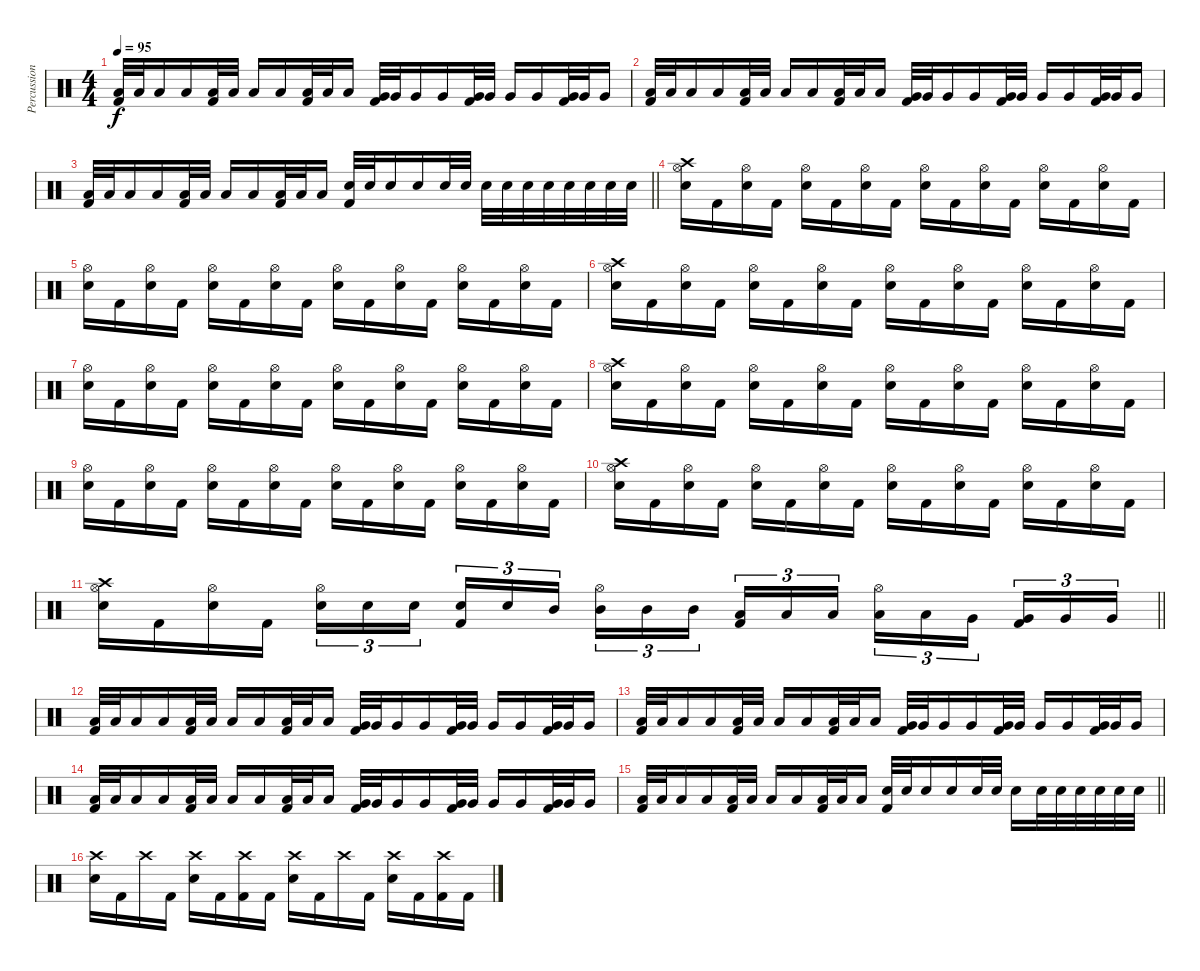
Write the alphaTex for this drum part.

\track ("Percussion" "Percussion") {instrument percussion}
\staff {score}
\articulation defaults
\ts (4 4)
\tempo 95
\clef neutral
\ks c
("Low Tom (hit)" "Kick (hit) 2").32{dy f} "Low Tom (hit)".32 "Low Tom (hit)".16 "Low Tom (hit)".16 ("Low Tom (hit)" "Kick (hit) 2").32 "Low Tom (hit)".32 "Low Tom (hit)".16 "Low Tom (hit)".16 ("Low Tom (hit)" "Kick (hit) 2").32 "Low Tom (hit)".32 "Low Tom (hit)".16 ("Very Low Tom (hit)" "Kick (hit) 2").32 "Very Low Tom (hit)".32 "Very Low Tom (hit)".16 "Very Low Tom (hit)".16 ("Very Low Tom (hit)" "Kick (hit) 2").32 "Very Low Tom (hit)".32 "Very Low Tom (hit)".16 "Very Low Tom (hit)".16 ("Very Low Tom (hit)" "Kick (hit) 2").32 "Very Low Tom (hit)".32 "Very Low Tom (hit)".16 |
("Low Tom (hit)" "Kick (hit) 2").32 "Low Tom (hit)".32 "Low Tom (hit)".16 "Low Tom (hit)".16 ("Low Tom (hit)" "Kick (hit) 2").32 "Low Tom (hit)".32 "Low Tom (hit)".16 "Low Tom (hit)".16 ("Low Tom (hit)" "Kick (hit) 2").32 "Low Tom (hit)".32 "Low Tom (hit)".16 ("Very Low Tom (hit)" "Kick (hit) 2").32 "Very Low Tom (hit)".32 "Very Low Tom (hit)".16 "Very Low Tom (hit)".16 ("Very Low Tom (hit)" "Kick (hit) 2").32 "Very Low Tom (hit)".32 "Very Low Tom (hit)".16 "Very Low Tom (hit)".16 ("Very Low Tom (hit)" "Kick (hit) 2").32 "Very Low Tom (hit)".32 "Very Low Tom (hit)".16 |
\barLineRight lightlight
("Low Tom (hit)" "Kick (hit) 2").32 "Low Tom (hit)".32 "Low Tom (hit)".16 "Low Tom (hit)".16 ("Low Tom (hit)" "Kick (hit) 2").32 "Low Tom (hit)".32 "Low Tom (hit)".16 "Low Tom (hit)".16 ("Low Tom (hit)" "Kick (hit) 2").32 "Low Tom (hit)".32 "Low Tom (hit)".16 ("Snare (hit) 2" "Kick (hit) 2").32 "Snare (hit) 2".32 "Snare (hit) 2".16 "Snare (hit) 2".16 "Snare (hit) 2".32 "Snare (hit) 2".32 "Snare (hit) 2".32 "Snare (hit) 2".32 "Snare (hit) 2".32 "Snare (hit) 2".32 "Snare (hit) 2".32 "Snare (hit) 2".32 "Snare (hit) 2".32 "Snare (hit) 2".32 |
("Crash high (hit)" "Hi-Hat (open)" "Snare (hit) 2").16 "Kick (hit) 2".16 ("Hi-Hat (open)" "Snare (hit) 2").16 "Kick (hit) 2".16 ("Hi-Hat (open)" "Snare (hit) 2").16 "Kick (hit) 2".16 ("Hi-Hat (open)" "Snare (hit) 2").16 "Kick (hit) 2".16 ("Hi-Hat (open)" "Snare (hit) 2").16 "Kick (hit) 2".16 ("Hi-Hat (open)" "Snare (hit) 2").16 "Kick (hit) 2".16 ("Hi-Hat (open)" "Snare (hit) 2").16 "Kick (hit) 2".16 ("Hi-Hat (open)" "Snare (hit) 2").16 "Kick (hit) 2".16 |
("Hi-Hat (open)" "Snare (hit) 2").16 "Kick (hit) 2".16 ("Hi-Hat (open)" "Snare (hit) 2").16 "Kick (hit) 2".16 ("Hi-Hat (open)" "Snare (hit) 2").16 "Kick (hit) 2".16 ("Hi-Hat (open)" "Snare (hit) 2").16 "Kick (hit) 2".16 ("Hi-Hat (open)" "Snare (hit) 2").16 "Kick (hit) 2".16 ("Hi-Hat (open)" "Snare (hit) 2").16 "Kick (hit) 2".16 ("Hi-Hat (open)" "Snare (hit) 2").16 "Kick (hit) 2".16 ("Hi-Hat (open)" "Snare (hit) 2").16 "Kick (hit) 2".16 |
("Crash high (hit)" "Hi-Hat (open)" "Snare (hit) 2").16 "Kick (hit) 2".16 ("Hi-Hat (open)" "Snare (hit) 2").16 "Kick (hit) 2".16 ("Hi-Hat (open)" "Snare (hit) 2").16 "Kick (hit) 2".16 ("Hi-Hat (open)" "Snare (hit) 2").16 "Kick (hit) 2".16 ("Hi-Hat (open)" "Snare (hit) 2").16 "Kick (hit) 2".16 ("Hi-Hat (open)" "Snare (hit) 2").16 "Kick (hit) 2".16 ("Hi-Hat (open)" "Snare (hit) 2").16 "Kick (hit) 2".16 ("Hi-Hat (open)" "Snare (hit) 2").16 "Kick (hit) 2".16 |
("Hi-Hat (open)" "Snare (hit) 2").16 "Kick (hit) 2".16 ("Hi-Hat (open)" "Snare (hit) 2").16 "Kick (hit) 2".16 ("Hi-Hat (open)" "Snare (hit) 2").16 "Kick (hit) 2".16 ("Hi-Hat (open)" "Snare (hit) 2").16 "Kick (hit) 2".16 ("Hi-Hat (open)" "Snare (hit) 2").16 "Kick (hit) 2".16 ("Hi-Hat (open)" "Snare (hit) 2").16 "Kick (hit) 2".16 ("Hi-Hat (open)" "Snare (hit) 2").16 "Kick (hit) 2".16 ("Hi-Hat (open)" "Snare (hit) 2").16 "Kick (hit) 2".16 |
("Crash high (hit)" "Hi-Hat (open)" "Snare (hit) 2").16 "Kick (hit) 2".16 ("Hi-Hat (open)" "Snare (hit) 2").16 "Kick (hit) 2".16 ("Hi-Hat (open)" "Snare (hit) 2").16 "Kick (hit) 2".16 ("Hi-Hat (open)" "Snare (hit) 2").16 "Kick (hit) 2".16 ("Hi-Hat (open)" "Snare (hit) 2").16 "Kick (hit) 2".16 ("Hi-Hat (open)" "Snare (hit) 2").16 "Kick (hit) 2".16 ("Hi-Hat (open)" "Snare (hit) 2").16 "Kick (hit) 2".16 ("Hi-Hat (open)" "Snare (hit) 2").16 "Kick (hit) 2".16 |
("Hi-Hat (open)" "Snare (hit) 2").16 "Kick (hit) 2".16 ("Hi-Hat (open)" "Snare (hit) 2").16 "Kick (hit) 2".16 ("Hi-Hat (open)" "Snare (hit) 2").16 "Kick (hit) 2".16 ("Hi-Hat (open)" "Snare (hit) 2").16 "Kick (hit) 2".16 ("Hi-Hat (open)" "Snare (hit) 2").16 "Kick (hit) 2".16 ("Hi-Hat (open)" "Snare (hit) 2").16 "Kick (hit) 2".16 ("Hi-Hat (open)" "Snare (hit) 2").16 "Kick (hit) 2".16 ("Hi-Hat (open)" "Snare (hit) 2").16 "Kick (hit) 2".16 |
("Crash high (hit)" "Hi-Hat (open)" "Snare (hit) 2").16 "Kick (hit) 2".16 ("Hi-Hat (open)" "Snare (hit) 2").16 "Kick (hit) 2".16 ("Hi-Hat (open)" "Snare (hit) 2").16 "Kick (hit) 2".16 ("Hi-Hat (open)" "Snare (hit) 2").16 "Kick (hit) 2".16 ("Hi-Hat (open)" "Snare (hit) 2").16 "Kick (hit) 2".16 ("Hi-Hat (open)" "Snare (hit) 2").16 "Kick (hit) 2".16 ("Hi-Hat (open)" "Snare (hit) 2").16 "Kick (hit) 2".16 ("Hi-Hat (open)" "Snare (hit) 2").16 "Kick (hit) 2".16 |
\barLineRight lightlight
("Crash high (hit)" "Hi-Hat (open)" "Snare (hit) 2").16 "Kick (hit) 2".16 ("Hi-Hat (open)" "Snare (hit) 2").16 "Kick (hit) 2".16 ("Hi-Hat (open)" "Snare (hit) 2").16{tu (3 2)} "Snare (hit) 2".16{tu (3 2)} "Snare (hit) 2".16{tu (3 2) beam splitsecondary} ("Snare (hit) 2" "Kick (hit) 2").16{tu (3 2)} "Snare (hit) 2".16{tu (3 2)} "Mid Tom (hit)".16{tu (3 2)} ("Hi-Hat (open)" "Mid Tom (hit)").16{tu (3 2)} "Mid Tom (hit)".16{tu (3 2)} "Mid Tom (hit)".16{tu (3 2) beam splitsecondary} ("Low Tom (hit)" "Kick (hit) 2").16{tu (3 2)} "Low Tom (hit)".16{tu (3 2)} "Low Tom (hit)".16{tu (3 2)} ("Hi-Hat (open)" "Low Tom (hit)").16{tu (3 2)} "Low Tom (hit)".16{tu (3 2)} "Very Low Tom (hit)".16{tu (3 2) beam splitsecondary} ("Very Low Tom (hit)" "Kick (hit) 2").16{tu (3 2)} "Very Low Tom (hit)".16{tu (3 2)} "Very Low Tom (hit)".16{tu (3 2)} |
("Low Tom (hit)" "Kick (hit) 2").32 "Low Tom (hit)".32 "Low Tom (hit)".16 "Low Tom (hit)".16 ("Low Tom (hit)" "Kick (hit) 2").32 "Low Tom (hit)".32 "Low Tom (hit)".16 "Low Tom (hit)".16 ("Low Tom (hit)" "Kick (hit) 2").32 "Low Tom (hit)".32 "Low Tom (hit)".16 ("Very Low Tom (hit)" "Kick (hit) 2").32 "Very Low Tom (hit)".32 "Very Low Tom (hit)".16 "Very Low Tom (hit)".16 ("Very Low Tom (hit)" "Kick (hit) 2").32 "Very Low Tom (hit)".32 "Very Low Tom (hit)".16 "Very Low Tom (hit)".16 ("Very Low Tom (hit)" "Kick (hit) 2").32 "Very Low Tom (hit)".32 "Very Low Tom (hit)".16 |
("Low Tom (hit)" "Kick (hit) 2").32 "Low Tom (hit)".32 "Low Tom (hit)".16 "Low Tom (hit)".16 ("Low Tom (hit)" "Kick (hit) 2").32 "Low Tom (hit)".32 "Low Tom (hit)".16 "Low Tom (hit)".16 ("Low Tom (hit)" "Kick (hit) 2").32 "Low Tom (hit)".32 "Low Tom (hit)".16 ("Very Low Tom (hit)" "Kick (hit) 2").32 "Very Low Tom (hit)".32 "Very Low Tom (hit)".16 "Very Low Tom (hit)".16 ("Very Low Tom (hit)" "Kick (hit) 2").32 "Very Low Tom (hit)".32 "Very Low Tom (hit)".16 "Very Low Tom (hit)".16 ("Very Low Tom (hit)" "Kick (hit) 2").32 "Very Low Tom (hit)".32 "Very Low Tom (hit)".16 |
("Low Tom (hit)" "Kick (hit) 2").32 "Low Tom (hit)".32 "Low Tom (hit)".16 "Low Tom (hit)".16 ("Low Tom (hit)" "Kick (hit) 2").32 "Low Tom (hit)".32 "Low Tom (hit)".16 "Low Tom (hit)".16 ("Low Tom (hit)" "Kick (hit) 2").32 "Low Tom (hit)".32 "Low Tom (hit)".16 ("Very Low Tom (hit)" "Kick (hit) 2").32 "Very Low Tom (hit)".32 "Very Low Tom (hit)".16 "Very Low Tom (hit)".16 ("Very Low Tom (hit)" "Kick (hit) 2").32 "Very Low Tom (hit)".32 "Very Low Tom (hit)".16 "Very Low Tom (hit)".16 ("Very Low Tom (hit)" "Kick (hit) 2").32 "Very Low Tom (hit)".32 "Very Low Tom (hit)".16 |
\barLineRight lightlight
("Low Tom (hit)" "Kick (hit) 2").32 "Low Tom (hit)".32 "Low Tom (hit)".16 "Low Tom (hit)".16 ("Low Tom (hit)" "Kick (hit) 2").32 "Low Tom (hit)".32 "Low Tom (hit)".16 "Low Tom (hit)".16 ("Low Tom (hit)" "Kick (hit) 2").32 "Low Tom (hit)".32 "Low Tom (hit)".16 ("Snare (hit) 2" "Kick (hit) 2").32 "Snare (hit) 2".32 "Snare (hit) 2".16 "Snare (hit) 2".16 "Snare (hit) 2".32 "Snare (hit) 2".32 "Snare (hit) 2".16 "Snare (hit) 2".32 "Snare (hit) 2".32 "Snare (hit) 2".32 "Snare (hit) 2".32 "Snare (hit) 2".32 "Snare (hit) 2".32 |
("Crash high (hit)" "Snare (hit) 2").16 "Kick (hit) 2".16 "Crash high (hit)".16 "Kick (hit) 2".16 ("Crash high (hit)" "Snare (hit) 2").16 "Kick (hit) 2".16 ("Crash high (hit)" "Kick (hit) 2").16 "Kick (hit) 2".16 ("Crash high (hit)" "Snare (hit) 2").16 "Kick (hit) 2".16 "Crash high (hit)".16 "Kick (hit) 2".16 ("Crash high (hit)" "Snare (hit) 2").16 "Kick (hit) 2".16 ("Crash high (hit)" "Kick (hit) 2").16 "Kick (hit) 2".16
